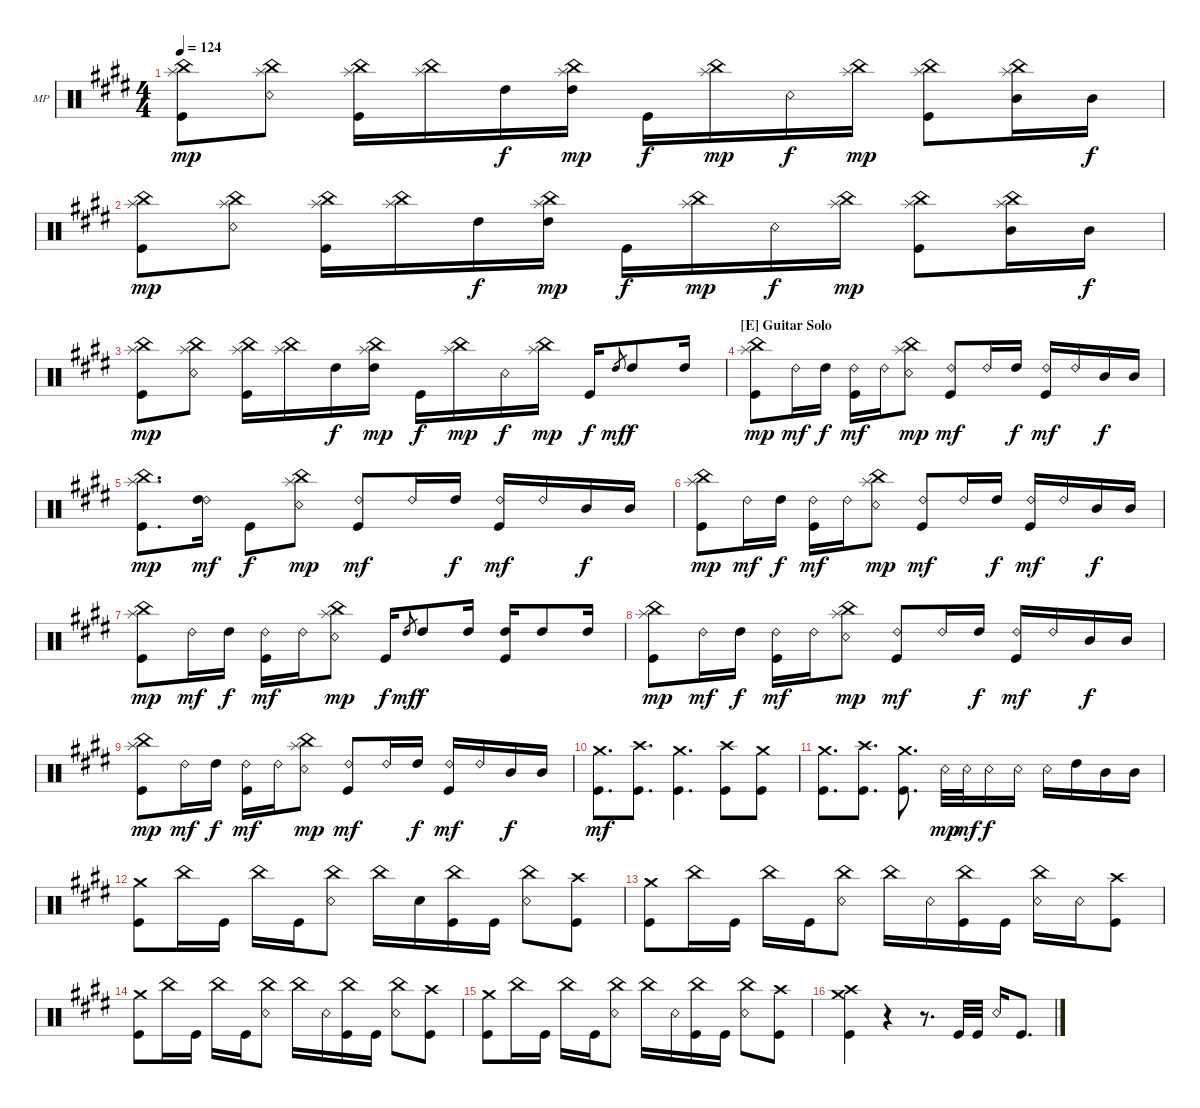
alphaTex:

\defaultSystemsLayout 4
\bracketExtendMode groupsimilarinstruments
\firstSystemTrackNameOrientation horizontal
\otherSystemsTrackNameOrientation horizontal
\track ("Mike Portnoy" "MP") {instrument percussion}
\staff {score}
\articulation defaults
\ts (4 4)
\tempo 124
\clef neutral
\ks e
("Splash (hit)" "China (hit)" "Kick (hit)").8{dy mp} ("Splash (hit)" "China (hit)" "Snare (rim shot)").8 ("Splash (hit)" "China (hit)" "Kick (hit)").16 ("Splash (hit)" "China (hit)").16 "High Tom (hit)".16{dy f} ("Splash (hit)" "China (hit)" "High Tom (hit)").16{dy mp} "Kick (hit)".16{dy f} ("Splash (hit)" "China (hit)").16{dy mp} "Snare (rim shot)".16{dy f} ("Splash (hit)" "China (hit)").16{dy mp} ("Splash (hit)" "China (hit)" "Kick (hit)").8 ("Splash (hit)" "China (hit)" "Mid Tom (hit)").16 "Mid Tom (hit)".16{dy f} |
("Splash (hit)" "China (hit)" "Kick (hit)").8{dy mp} ("Splash (hit)" "China (hit)" "Snare (rim shot)").8 ("Splash (hit)" "China (hit)" "Kick (hit)").16 ("Splash (hit)" "China (hit)").16 "High Tom (hit)".16{dy f} ("Splash (hit)" "China (hit)" "High Tom (hit)").16{dy mp} "Kick (hit)".16{dy f} ("Splash (hit)" "China (hit)").16{dy mp} "Snare (rim shot)".16{dy f} ("Splash (hit)" "China (hit)").16{dy mp} ("Splash (hit)" "China (hit)" "Kick (hit)").8 ("Splash (hit)" "China (hit)" "Mid Tom (hit)").16 "Mid Tom (hit)".16{dy f} |
("Splash (hit)" "China (hit)" "Kick (hit)").8{dy mp} ("Splash (hit)" "China (hit)" "Snare (rim shot)").8 ("Splash (hit)" "China (hit)" "Kick (hit)").16 ("Splash (hit)" "China (hit)").16 "High Tom (hit)".16{dy f} ("Splash (hit)" "China (hit)" "High Tom (hit)").16{dy mp} "Kick (hit)".16{dy f} ("Splash (hit)" "China (hit)").16{dy mp} "Snare (rim shot)".16{dy f} ("Splash (hit)" "China (hit)").16{dy mp} "Kick (hit)".16{dy f} "High Tom (hit)".8{gr dy mf} "High Tom (hit)".8{dy f} "High Tom (hit)".16 |
\section ("E" "Guitar Solo")
("China (hit)" "Splash (hit)" "Kick (hit)").8{dy mp} "Ride (bell) 2".16{dy mf} "High Tom (hit)".16{dy f} ("Ride (bell) 2" "Kick (hit)").16{dy mf} "Ride (bell) 2".16 ("China (hit)" "Splash (hit)" "Snare (rim shot)").8{dy mp} ("Ride (bell) 2" "Kick (hit)").8{dy mf} "Ride (bell) 2".16 "High Tom (hit)".16{dy f} ("Ride (bell) 2" "Kick (hit)").16{dy mf} "Ride (bell) 2".16 "Mid Tom (hit)".16{dy f} "Mid Tom (hit)".16 |
("China (hit)" "Splash (hit)" "Kick (hit)").8{d dy mp} ("Ride (bell) 2" "High Tom (hit)").16{dy mf} "Kick (hit)".8{dy f} ("China (hit)" "Splash (hit)" "Snare (rim shot)").8{dy mp} ("Ride (bell) 2" "Kick (hit)").8{dy mf} "Ride (bell) 2".16 "High Tom (hit)".16{dy f} ("Ride (bell) 2" "Kick (hit)").16{dy mf} "Ride (bell) 2".16 "Mid Tom (hit)".16{dy f} "Mid Tom (hit)".16 |
("China (hit)" "Splash (hit)" "Kick (hit)").8{dy mp} "Ride (bell) 2".16{dy mf} "High Tom (hit)".16{dy f} ("Ride (bell) 2" "Kick (hit)").16{dy mf} "Ride (bell) 2".16 ("China (hit)" "Splash (hit)" "Snare (rim shot)").8{dy mp} ("Ride (bell) 2" "Kick (hit)").8{dy mf} "Ride (bell) 2".16 "High Tom (hit)".16{dy f} ("Ride (bell) 2" "Kick (hit)").16{dy mf} "Ride (bell) 2".16 "Mid Tom (hit)".16{dy f} "Mid Tom (hit)".16 |
("China (hit)" "Splash (hit)" "Kick (hit)").8{dy mp} "Ride (bell) 2".16{dy mf} "High Tom (hit)".16{dy f} ("Ride (bell) 2" "Kick (hit)").16{dy mf} "Ride (bell) 2".16 ("China (hit)" "Splash (hit)" "Snare (rim shot)").8{dy mp} "Kick (hit)".16{dy f} "High Tom (hit)".8{gr dy mf} "High Tom (hit)".8{dy f} "High Tom (hit)".16 ("High Tom (hit)" "Kick (hit)").16 "High Tom (hit)".8 "High Tom (hit)".16 |
("China (hit)" "Splash (hit)" "Kick (hit)").8{dy mp} "Ride (bell) 2".16{dy mf} "High Tom (hit)".16{dy f} ("Ride (bell) 2" "Kick (hit)").16{dy mf} "Ride (bell) 2".16 ("China (hit)" "Splash (hit)" "Snare (rim shot)").8{dy mp} ("Ride (bell) 2" "Kick (hit)").8{dy mf} "Ride (bell) 2".16 "High Tom (hit)".16{dy f} ("Ride (bell) 2" "Kick (hit)").16{dy mf} "Ride (bell) 2".16 "Mid Tom (hit)".16{dy f} "Mid Tom (hit)".16 |
("China (hit)" "Splash (hit)" "Kick (hit)").8{dy mp} "Ride (bell) 2".16{dy mf} "High Tom (hit)".16{dy f} ("Ride (bell) 2" "Kick (hit)").16{dy mf} "Ride (bell) 2".16 ("China (hit)" "Splash (hit)" "Snare (rim shot)").8{dy mp} ("Ride (bell) 2" "Kick (hit)").8{dy mf} "Ride (bell) 2".16 "High Tom (hit)".16{dy f} ("Ride (bell) 2" "Kick (hit)").16{dy mf} "Ride (bell) 2".16 "Mid Tom (hit)".16{dy f} "Mid Tom (hit)".16 |
("Crash medium (hit)" "Kick (hit)").8{d dy mf} ("Crash high (hit)" "Kick (hit)").8{d} ("Crash medium (hit)" "Kick (hit)").4{d} ("Crash high (hit)" "Kick (hit)").8 ("Crash medium (hit)" "Kick (hit)").8 |
("Crash medium (hit)" "Kick (hit)").8{d} ("Crash high (hit)" "Kick (hit)").8{d} ("Crash medium (hit)" "Kick (hit)").8{d} "Snare (rim shot)".32{dy mp} "Snare (rim shot)".32{dy mf} "Snare (rim shot)".16{dy f} "Snare (rim shot)".16 "Snare (rim shot)".16 "High Tom (hit)".16 "Mid Tom (hit)".16 "Mid Tom (hit)".16 |
("Crash medium (hit)" "Kick (hit)").8 "China (hit)".16 "Kick (hit)".16 "China (hit)".16 "Kick (hit)".16 ("China (hit)" "Snare (rim shot)").8 "China (hit)".16 "Snare (hit) 2".16 ("China (hit)" "Kick (hit)").16 "Kick (hit)".16 ("China (hit)" "Snare (rim shot)").8 ("Crash high (hit)" "Kick (hit)").8 |
("Crash medium (hit)" "Kick (hit)").8 "China (hit)".16 "Kick (hit)".16 "China (hit)".16 "Kick (hit)".16 ("China (hit)" "Snare (rim shot)").8 "China (hit)".16 "Snare (rim shot)".16 ("China (hit)" "Kick (hit)").16 "Kick (hit)".16 ("China (hit)" "Snare (rim shot)").16 "Snare (rim shot)".16 ("Crash high (hit)" "Kick (hit)").8 |
("Crash medium (hit)" "Kick (hit)").8 "China (hit)".16 "Kick (hit)".16 "China (hit)".16 "Kick (hit)".16 ("China (hit)" "Snare (rim shot)").8 "China (hit)".16 "Snare (rim shot)".16 ("China (hit)" "Kick (hit)").16 "Kick (hit)".16 ("China (hit)" "Snare (rim shot)").8 ("Crash high (hit)" "Kick (hit)").8 |
("Crash medium (hit)" "Kick (hit)").8 "China (hit)".16 "Kick (hit)".16 "China (hit)".16 "Kick (hit)".16 ("China (hit)" "Snare (rim shot)").8 "China (hit)".16 "Snare (rim shot)".16 ("China (hit)" "Kick (hit)").16 "Kick (hit)".16 ("China (hit)" "Snare (rim shot)").8 ("Crash high (hit)" "Kick (hit)").8 |
("Crash medium (hit)" "Crash high (hit)" "Kick (hit)").4 r.4 r.8{d} "Kick (hit)".32 "Kick (hit)".32 "Snare (rim shot)".16 "Kick (hit)".8{d}
